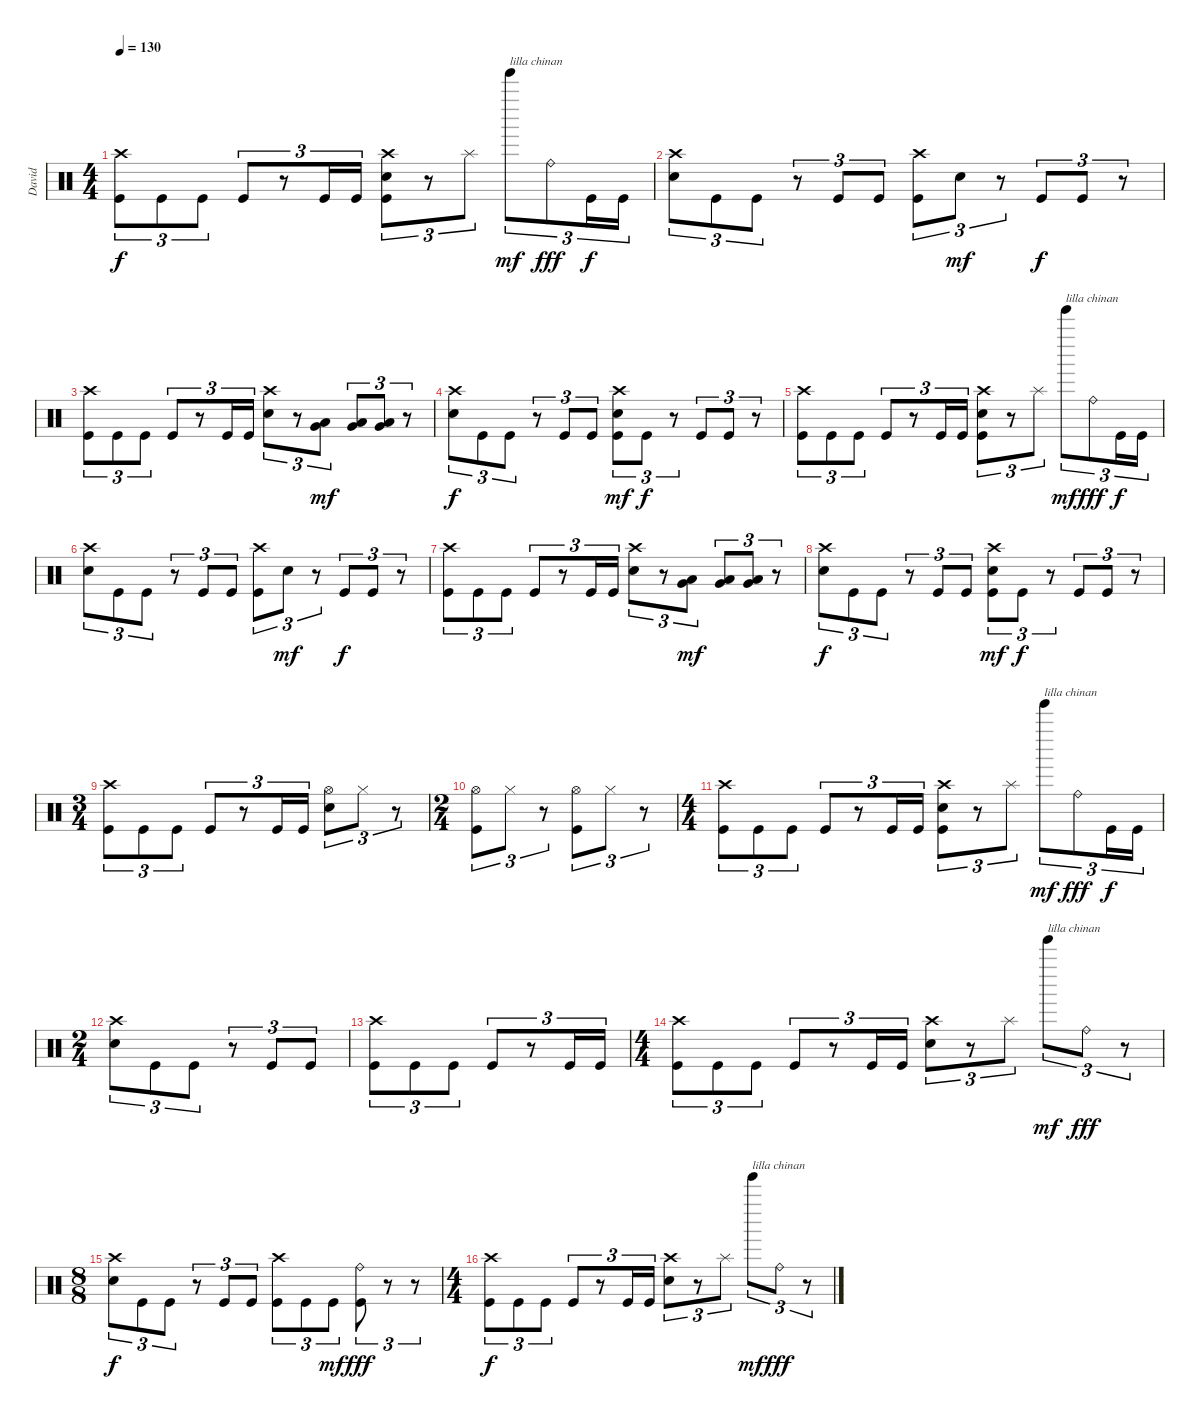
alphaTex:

\track ("David" "David") {instrument percussion}
\staff {score}
\articulation defaults
\ts (4 4)
\tempo 130
\clef neutral
\ks c
("Crash high (hit)" "Kick (hit)").8{tu (3 2) dy f} "Kick (hit)".8{tu (3 2)} "Kick (hit)".8{tu (3 2)} "Kick (hit)".8{tu (3 2)} r.8{tu (3 2)} "Kick (hit)".16{tu (3 2)} "Kick (hit)".16{tu (3 2)} ("Crash high (hit)" "Electric Snare (hit)" "Kick (hit)").8{tu (3 2)} r.8{tu (3 2)} "Splash (hit)".8{tu (3 2)} "Tinkle Bell (hit)".8{tu (3 2) txt "lilla chinan" dy mf} "Ride (bell)".8{tu (3 2) dy fff} "Kick (hit)".16{tu (3 2) dy f} "Kick (hit)".16{tu (3 2)} |
("Crash high (hit)" "Electric Snare (hit)").8{tu (3 2)} "Kick (hit)".8{tu (3 2)} "Kick (hit)".8{tu (3 2)} r.8{tu (3 2)} "Kick (hit)".8{tu (3 2)} "Kick (hit)".8{tu (3 2)} ("Crash high (hit)" "Kick (hit)").8{tu (3 2)} "Electric Snare (hit)".8{tu (3 2) dy mf} r.8{tu (3 2)} "Kick (hit)".8{tu (3 2) dy f} "Kick (hit)".8{tu (3 2)} r.8{tu (3 2)} |
("Crash high (hit)" "Kick (hit)").8{tu (3 2)} "Kick (hit)".8{tu (3 2)} "Kick (hit)".8{tu (3 2)} "Kick (hit)".8{tu (3 2)} r.8{tu (3 2)} "Kick (hit)".16{tu (3 2)} "Kick (hit)".16{tu (3 2)} ("Crash high (hit)" "Electric Snare (hit)").8{tu (3 2)} r.8{tu (3 2)} ("Very Low Tom (hit)" "Low Floor Tom (hit)").8{tu (3 2) dy mf} ("Very Low Tom (hit)" "Low Floor Tom (hit)").8{tu (3 2)} ("Very Low Tom (hit)" "Low Floor Tom (hit)").8{tu (3 2)} r.8{tu (3 2)} |
("Crash high (hit)" "Electric Snare (hit)").8{tu (3 2) dy f} "Kick (hit)".8{tu (3 2)} "Kick (hit)".8{tu (3 2)} r.8{tu (3 2)} "Kick (hit)".8{tu (3 2)} "Kick (hit)".8{tu (3 2)} ("Crash high (hit)" "Electric Snare (hit)" "Kick (hit)").8{tu (3 2) dy mf} "Kick (hit)".8{tu (3 2) dy f} r.8{tu (3 2)} "Kick (hit)".8{tu (3 2)} "Kick (hit)".8{tu (3 2)} r.8{tu (3 2)} |
("Crash high (hit)" "Kick (hit)").8{tu (3 2)} "Kick (hit)".8{tu (3 2)} "Kick (hit)".8{tu (3 2)} "Kick (hit)".8{tu (3 2)} r.8{tu (3 2)} "Kick (hit)".16{tu (3 2)} "Kick (hit)".16{tu (3 2)} ("Crash high (hit)" "Electric Snare (hit)" "Kick (hit)").8{tu (3 2)} r.8{tu (3 2)} "Splash (hit)".8{tu (3 2)} "Tinkle Bell (hit)".8{tu (3 2) txt "lilla chinan" dy mf} "Ride (bell)".8{tu (3 2) dy fff} "Kick (hit)".16{tu (3 2) dy f} "Kick (hit)".16{tu (3 2)} |
("Crash high (hit)" "Electric Snare (hit)").8{tu (3 2)} "Kick (hit)".8{tu (3 2)} "Kick (hit)".8{tu (3 2)} r.8{tu (3 2)} "Kick (hit)".8{tu (3 2)} "Kick (hit)".8{tu (3 2)} ("Crash high (hit)" "Kick (hit)").8{tu (3 2)} "Electric Snare (hit)".8{tu (3 2) dy mf} r.8{tu (3 2)} "Kick (hit)".8{tu (3 2) dy f} "Kick (hit)".8{tu (3 2)} r.8{tu (3 2)} |
("Crash high (hit)" "Kick (hit)").8{tu (3 2)} "Kick (hit)".8{tu (3 2)} "Kick (hit)".8{tu (3 2)} "Kick (hit)".8{tu (3 2)} r.8{tu (3 2)} "Kick (hit)".16{tu (3 2)} "Kick (hit)".16{tu (3 2)} ("Crash high (hit)" "Electric Snare (hit)").8{tu (3 2)} r.8{tu (3 2)} ("Very Low Tom (hit)" "Low Floor Tom (hit)").8{tu (3 2) dy mf} ("Very Low Tom (hit)" "Low Floor Tom (hit)").8{tu (3 2)} ("Very Low Tom (hit)" "Low Floor Tom (hit)").8{tu (3 2)} r.8{tu (3 2)} |
("Crash high (hit)" "Electric Snare (hit)").8{tu (3 2) dy f} "Kick (hit)".8{tu (3 2)} "Kick (hit)".8{tu (3 2)} r.8{tu (3 2)} "Kick (hit)".8{tu (3 2)} "Kick (hit)".8{tu (3 2)} ("Crash high (hit)" "Electric Snare (hit)" "Kick (hit)").8{tu (3 2) dy mf} "Kick (hit)".8{tu (3 2) dy f} r.8{tu (3 2)} "Kick (hit)".8{tu (3 2)} "Kick (hit)".8{tu (3 2)} r.8{tu (3 2)} |
\ts (3 4)
("Crash high (hit)" "Kick (hit)").8{tu (3 2)} "Kick (hit)".8{tu (3 2)} "Kick (hit)".8{tu (3 2)} "Kick (hit)".8{tu (3 2)} r.8{tu (3 2)} "Kick (hit)".16{tu (3 2)} "Kick (hit)".16{tu (3 2)} ("Hi-Hat (open)" "Electric Snare (hit)").8{tu (3 2)} "Hi-Hat (closed)".8{tu (3 2)} r.8{tu (3 2)} |
\ts (2 4)
("Hi-Hat (open)" "Kick (hit)").8{tu (3 2)} "Hi-Hat (closed)".8{tu (3 2)} r.8{tu (3 2)} ("Hi-Hat (open)" "Kick (hit)").8{tu (3 2)} "Hi-Hat (closed)".8{tu (3 2)} r.8{tu (3 2)} |
\ts (4 4)
("Crash high (hit)" "Kick (hit)").8{tu (3 2)} "Kick (hit)".8{tu (3 2)} "Kick (hit)".8{tu (3 2)} "Kick (hit)".8{tu (3 2)} r.8{tu (3 2)} "Kick (hit)".16{tu (3 2)} "Kick (hit)".16{tu (3 2)} ("Crash high (hit)" "Electric Snare (hit)" "Kick (hit)").8{tu (3 2)} r.8{tu (3 2)} "Splash (hit)".8{tu (3 2)} "Tinkle Bell (hit)".8{tu (3 2) txt "lilla chinan" dy mf} "Ride (bell)".8{tu (3 2) dy fff} "Kick (hit)".16{tu (3 2) dy f} "Kick (hit)".16{tu (3 2)} |
\ts (2 4)
("Crash high (hit)" "Electric Snare (hit)").8{tu (3 2)} "Kick (hit)".8{tu (3 2)} "Kick (hit)".8{tu (3 2)} r.8{tu (3 2)} "Kick (hit)".8{tu (3 2) beam merge} "Kick (hit)".8{tu (3 2)} |
("Crash high (hit)" "Kick (hit)").8{tu (3 2)} "Kick (hit)".8{tu (3 2)} "Kick (hit)".8{tu (3 2)} "Kick (hit)".8{tu (3 2)} r.8{tu (3 2)} "Kick (hit)".16{tu (3 2)} "Kick (hit)".16{tu (3 2)} |
\ts (4 4)
("Crash high (hit)" "Kick (hit)").8{tu (3 2)} "Kick (hit)".8{tu (3 2)} "Kick (hit)".8{tu (3 2)} "Kick (hit)".8{tu (3 2)} r.8{tu (3 2)} "Kick (hit)".16{tu (3 2)} "Kick (hit)".16{tu (3 2)} ("Crash high (hit)" "Electric Snare (hit)").8{tu (3 2)} r.8{tu (3 2)} "Splash (hit)".8{tu (3 2)} "Tinkle Bell (hit)".8{tu (3 2) txt "lilla chinan" dy mf} "Ride (bell)".8{tu (3 2) dy fff} r.8{tu (3 2)} |
\ts (8 8)
("Crash high (hit)" "Electric Snare (hit)").8{tu (3 2) dy f} "Kick (hit)".8{tu (3 2)} "Kick (hit)".8{tu (3 2)} r.8{tu (3 2)} "Kick (hit)".8{tu (3 2)} "Kick (hit)".8{tu (3 2)} ("Crash high (hit)" "Kick (hit)").8{tu (3 2)} "Kick (hit)".8{tu (3 2)} "Kick (hit)".8{tu (3 2) dy mf} ("Ride (bell)" "Kick (hit)").8{tu (3 2) dy fff} r.8{tu (3 2)} r.8{tu (3 2)} |
\ts (4 4)
("Crash high (hit)" "Kick (hit)").8{tu (3 2) dy f} "Kick (hit)".8{tu (3 2)} "Kick (hit)".8{tu (3 2)} "Kick (hit)".8{tu (3 2)} r.8{tu (3 2)} "Kick (hit)".16{tu (3 2)} "Kick (hit)".16{tu (3 2)} ("Crash high (hit)" "Electric Snare (hit)").8{tu (3 2)} r.8{tu (3 2)} "Splash (hit)".8{tu (3 2)} "Tinkle Bell (hit)".8{tu (3 2) txt "lilla chinan" dy mf} "Ride (bell)".8{tu (3 2) dy fff} r.8{tu (3 2)}
